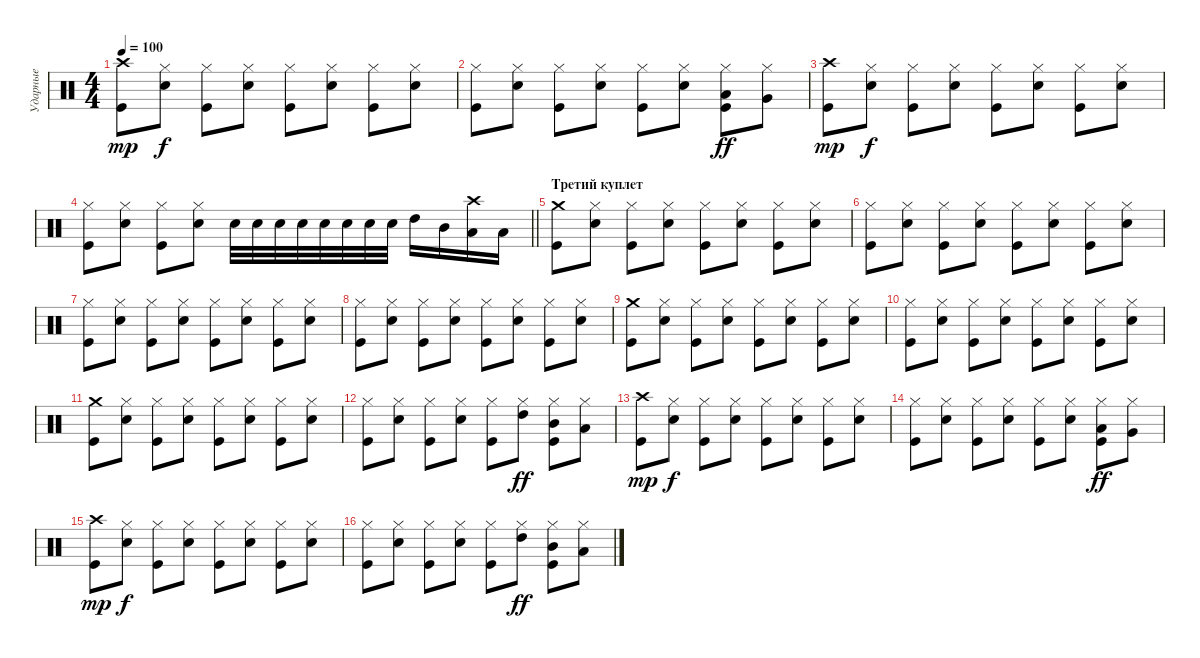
\track ("Ударные" "Ударные") {instrument percussion}
\staff {score}
\articulation defaults
\ts (4 4)
\tempo 100
\clef neutral
\ks c
("Kick (hit)" "Crash high (hit)").8{dy mp} ("Hi-Hat (closed)" "Snare (hit) 2").8{dy f} ("Hi-Hat (closed)" "Kick (hit)").8 ("Hi-Hat (closed)" "Snare (hit) 2").8 ("Hi-Hat (closed)" "Kick (hit)").8 ("Hi-Hat (closed)" "Snare (hit) 2").8 ("Hi-Hat (closed)" "Kick (hit)").8 ("Hi-Hat (closed)" "Snare (hit) 2").8 |
("Hi-Hat (closed)" "Kick (hit)").8 ("Hi-Hat (closed)" "Snare (hit) 2").8 ("Hi-Hat (closed)" "Kick (hit)").8 ("Hi-Hat (closed)" "Snare (hit) 2").8 ("Hi-Hat (closed)" "Kick (hit)").8 ("Hi-Hat (closed)" "Snare (hit) 2").8 ("Hi-Hat (closed)" "Kick (hit)" "Low Tom (hit)").8{dy ff} ("Hi-Hat (closed)" "Very Low Tom (hit)").8 |
("Kick (hit)" "Crash high (hit)").8{dy mp} ("Hi-Hat (closed)" "Snare (hit) 2").8{dy f} ("Hi-Hat (closed)" "Kick (hit)").8 ("Hi-Hat (closed)" "Snare (hit) 2").8 ("Hi-Hat (closed)" "Kick (hit)").8 ("Hi-Hat (closed)" "Snare (hit) 2").8 ("Hi-Hat (closed)" "Kick (hit)").8 ("Hi-Hat (closed)" "Snare (hit) 2").8 |
\barLineRight lightlight
("Hi-Hat (closed)" "Kick (hit)").8 ("Hi-Hat (closed)" "Snare (hit) 2").8 ("Hi-Hat (closed)" "Kick (hit)").8 ("Hi-Hat (closed)" "Snare (hit) 2").8 "Snare (hit) 2".32 "Snare (hit) 2".32 "Snare (hit) 2".32 "Snare (hit) 2".32 "Snare (hit) 2".32 "Snare (hit) 2".32 "Snare (hit) 2".32 "Snare (hit) 2".32 "High Tom (hit)".16 "Mid Tom (hit)".16 ("Low Tom (hit)" "Crash high (hit)").16 "Low Floor Tom (hit)".16 |
\section ("" "Третий куплет")
("Crash medium (hit)" "Kick (hit)").8 ("Hi-Hat (closed)" "Snare (hit) 2").8 ("Kick (hit)" "Hi-Hat (closed)").8 ("Hi-Hat (closed)" "Snare (hit) 2").8 ("Hi-Hat (closed)" "Kick (hit)").8 ("Hi-Hat (closed)" "Snare (hit) 2").8 ("Hi-Hat (closed)" "Kick (hit)").8 ("Hi-Hat (closed)" "Snare (hit) 2").8 |
("Hi-Hat (closed)" "Kick (hit)").8 ("Hi-Hat (closed)" "Snare (hit) 2").8 ("Hi-Hat (closed)" "Kick (hit)").8 ("Hi-Hat (closed)" "Snare (hit) 2").8 ("Hi-Hat (closed)" "Kick (hit)").8 ("Hi-Hat (closed)" "Snare (hit) 2").8 ("Hi-Hat (closed)" "Kick (hit)").8 ("Hi-Hat (closed)" "Snare (hit) 2").8 |
("Hi-Hat (closed)" "Kick (hit)").8 ("Hi-Hat (closed)" "Snare (hit) 2").8 ("Hi-Hat (closed)" "Kick (hit)").8 ("Hi-Hat (closed)" "Snare (hit) 2").8 ("Hi-Hat (closed)" "Kick (hit)").8 ("Hi-Hat (closed)" "Snare (hit) 2").8 ("Hi-Hat (closed)" "Kick (hit)").8 ("Hi-Hat (closed)" "Snare (hit) 2").8 |
("Hi-Hat (closed)" "Kick (hit)").8 ("Hi-Hat (closed)" "Snare (hit) 2").8 ("Hi-Hat (closed)" "Kick (hit)").8 ("Hi-Hat (closed)" "Snare (hit) 2").8 ("Hi-Hat (closed)" "Kick (hit)").8 ("Hi-Hat (closed)" "Snare (hit) 2").8 ("Hi-Hat (closed)" "Kick (hit)").8 ("Hi-Hat (closed)" "Snare (hit) 2").8 |
("Crash medium (hit)" "Kick (hit)").8 ("Hi-Hat (closed)" "Snare (hit) 2").8 ("Kick (hit)" "Hi-Hat (closed)").8 ("Hi-Hat (closed)" "Snare (hit) 2").8 ("Hi-Hat (closed)" "Kick (hit)").8 ("Hi-Hat (closed)" "Snare (hit) 2").8 ("Hi-Hat (closed)" "Kick (hit)").8 ("Hi-Hat (closed)" "Snare (hit) 2").8 |
("Hi-Hat (closed)" "Kick (hit)").8 ("Hi-Hat (closed)" "Snare (hit) 2").8 ("Hi-Hat (closed)" "Kick (hit)").8 ("Hi-Hat (closed)" "Snare (hit) 2").8 ("Hi-Hat (closed)" "Kick (hit)").8 ("Hi-Hat (closed)" "Snare (hit) 2").8 ("Hi-Hat (closed)" "Kick (hit)").8 ("Hi-Hat (closed)" "Snare (hit) 2").8 |
("Crash medium (hit)" "Kick (hit)").8 ("Hi-Hat (closed)" "Snare (hit) 2").8 ("Kick (hit)" "Hi-Hat (closed)").8 ("Hi-Hat (closed)" "Snare (hit) 2").8 ("Hi-Hat (closed)" "Kick (hit)").8 ("Hi-Hat (closed)" "Snare (hit) 2").8 ("Hi-Hat (closed)" "Kick (hit)").8 ("Hi-Hat (closed)" "Snare (hit) 2").8 |
("Hi-Hat (closed)" "Kick (hit)").8 ("Hi-Hat (closed)" "Snare (hit) 2").8 ("Hi-Hat (closed)" "Kick (hit)").8 ("Hi-Hat (closed)" "Snare (hit) 2").8 ("Hi-Hat (closed)" "Kick (hit)").8 ("Hi-Hat (closed)" "High Tom (hit)").8{dy ff} ("Hi-Hat (closed)" "Kick (hit)" "Mid Tom (hit)").8 ("Hi-Hat (closed)" "Low Tom (hit)").8 |
("Kick (hit)" "Crash high (hit)").8{dy mp} ("Hi-Hat (closed)" "Snare (hit) 2").8{dy f} ("Hi-Hat (closed)" "Kick (hit)").8 ("Hi-Hat (closed)" "Snare (hit) 2").8 ("Hi-Hat (closed)" "Kick (hit)").8 ("Hi-Hat (closed)" "Snare (hit) 2").8 ("Hi-Hat (closed)" "Kick (hit)").8 ("Hi-Hat (closed)" "Snare (hit) 2").8 |
("Hi-Hat (closed)" "Kick (hit)").8 ("Hi-Hat (closed)" "Snare (hit) 2").8 ("Hi-Hat (closed)" "Kick (hit)").8 ("Hi-Hat (closed)" "Snare (hit) 2").8 ("Hi-Hat (closed)" "Kick (hit)").8 ("Hi-Hat (closed)" "Snare (hit) 2").8 ("Hi-Hat (closed)" "Kick (hit)" "Low Tom (hit)").8{dy ff} ("Hi-Hat (closed)" "Very Low Tom (hit)").8 |
("Kick (hit)" "Crash high (hit)").8{dy mp} ("Hi-Hat (closed)" "Snare (hit) 2").8{dy f} ("Hi-Hat (closed)" "Kick (hit)").8 ("Hi-Hat (closed)" "Snare (hit) 2").8 ("Hi-Hat (closed)" "Kick (hit)").8 ("Hi-Hat (closed)" "Snare (hit) 2").8 ("Hi-Hat (closed)" "Kick (hit)").8 ("Hi-Hat (closed)" "Snare (hit) 2").8 |
("Hi-Hat (closed)" "Kick (hit)").8 ("Hi-Hat (closed)" "Snare (hit) 2").8 ("Hi-Hat (closed)" "Kick (hit)").8 ("Hi-Hat (closed)" "Snare (hit) 2").8 ("Hi-Hat (closed)" "Kick (hit)").8 ("Hi-Hat (closed)" "High Tom (hit)").8{dy ff} ("Hi-Hat (closed)" "Kick (hit)" "Mid Tom (hit)").8 ("Hi-Hat (closed)" "Low Tom (hit)").8
